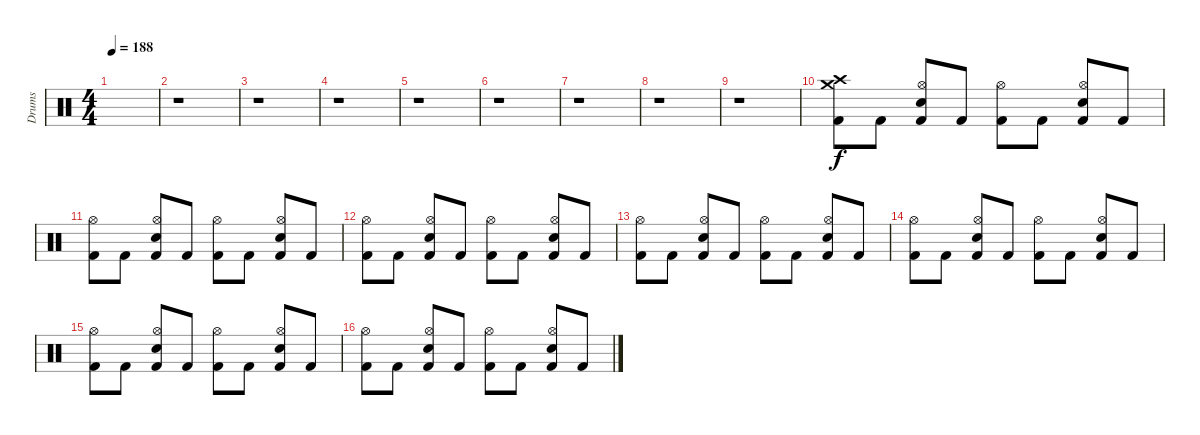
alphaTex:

\track ("Drums" "Drums") {instrument percussion}
\staff {score}
\articulation defaults
\ts (4 4)
\tempo 188
\clef neutral
\ks c
|
r.1 |
r.1 |
r.1 |
r.1 |
r.1 |
r.1 |
r.1 |
r.1 |
("Crash high (hit)" "Crash medium (hit)" "Kick (hit) 2").8 "Kick (hit) 2".8 ("Hi-Hat (open)" "Electric Snare (hit)" "Kick (hit) 2").8 "Kick (hit) 2".8 ("Hi-Hat (open)" "Kick (hit) 2").8 "Kick (hit) 2".8 ("Hi-Hat (open)" "Electric Snare (hit)" "Kick (hit) 2").8 "Kick (hit) 2".8 |
("Hi-Hat (open)" "Kick (hit) 2").8 "Kick (hit) 2".8 ("Hi-Hat (open)" "Electric Snare (hit)" "Kick (hit) 2").8 "Kick (hit) 2".8 ("Hi-Hat (open)" "Kick (hit) 2").8 "Kick (hit) 2".8 ("Hi-Hat (open)" "Electric Snare (hit)" "Kick (hit) 2").8 "Kick (hit) 2".8 |
("Hi-Hat (open)" "Kick (hit) 2").8 "Kick (hit) 2".8 ("Hi-Hat (open)" "Electric Snare (hit)" "Kick (hit) 2").8 "Kick (hit) 2".8 ("Hi-Hat (open)" "Kick (hit) 2").8 "Kick (hit) 2".8 ("Hi-Hat (open)" "Electric Snare (hit)" "Kick (hit) 2").8 "Kick (hit) 2".8 |
("Hi-Hat (open)" "Kick (hit) 2").8 "Kick (hit) 2".8 ("Hi-Hat (open)" "Electric Snare (hit)" "Kick (hit) 2").8 "Kick (hit) 2".8 ("Hi-Hat (open)" "Kick (hit) 2").8 "Kick (hit) 2".8 ("Hi-Hat (open)" "Electric Snare (hit)" "Kick (hit) 2").8 "Kick (hit) 2".8 |
("Hi-Hat (open)" "Kick (hit) 2").8 "Kick (hit) 2".8 ("Hi-Hat (open)" "Electric Snare (hit)" "Kick (hit) 2").8 "Kick (hit) 2".8 ("Hi-Hat (open)" "Kick (hit) 2").8 "Kick (hit) 2".8 ("Hi-Hat (open)" "Electric Snare (hit)" "Kick (hit) 2").8 "Kick (hit) 2".8 |
("Hi-Hat (open)" "Kick (hit) 2").8 "Kick (hit) 2".8 ("Hi-Hat (open)" "Electric Snare (hit)" "Kick (hit) 2").8 "Kick (hit) 2".8 ("Hi-Hat (open)" "Kick (hit) 2").8 "Kick (hit) 2".8 ("Hi-Hat (open)" "Electric Snare (hit)" "Kick (hit) 2").8 "Kick (hit) 2".8 |
("Hi-Hat (open)" "Kick (hit) 2").8 "Kick (hit) 2".8 ("Hi-Hat (open)" "Electric Snare (hit)" "Kick (hit) 2").8 "Kick (hit) 2".8 ("Hi-Hat (open)" "Kick (hit) 2").8 "Kick (hit) 2".8 ("Hi-Hat (open)" "Electric Snare (hit)" "Kick (hit) 2").8 "Kick (hit) 2".8
